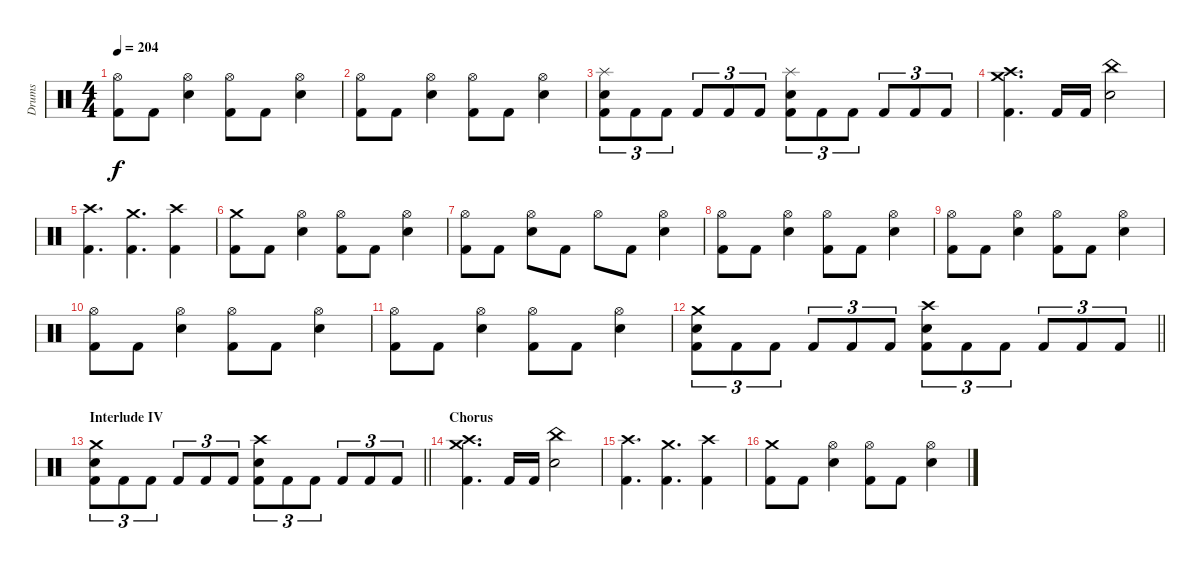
\track ("Drums" "Drums") {instrument percussion}
\staff {score}
\articulation defaults
\ts (4 4)
\tempo 204
\clef neutral
\ks c
("Hi-Hat (open)" "Kick (hit) 2").8{dy f} "Kick (hit) 2".8 ("Hi-Hat (open)" "Electric Snare (hit)").4 ("Hi-Hat (open)" "Kick (hit) 2").8 "Kick (hit) 2".8 ("Hi-Hat (open)" "Electric Snare (hit)").4 |
("Hi-Hat (open)" "Kick (hit) 2").8 "Kick (hit) 2".8 ("Hi-Hat (open)" "Electric Snare (hit)").4 ("Hi-Hat (open)" "Kick (hit) 2").8 "Kick (hit) 2".8 ("Hi-Hat (open)" "Electric Snare (hit)").4 |
("Splash (hit)" "Electric Snare (hit)" "Kick (hit) 2").8{tu (3 2)} "Kick (hit) 2".8{tu (3 2)} "Kick (hit) 2".8{tu (3 2)} "Kick (hit) 2".8{tu (3 2)} "Kick (hit) 2".8{tu (3 2)} "Kick (hit) 2".8{tu (3 2)} ("Splash (hit)" "Electric Snare (hit)" "Kick (hit) 2").8{tu (3 2)} "Kick (hit) 2".8{tu (3 2)} "Kick (hit) 2".8{tu (3 2)} "Kick (hit) 2".8{tu (3 2)} "Kick (hit) 2".8{tu (3 2)} "Kick (hit) 2".8{tu (3 2)} |
("Crash medium (hit)" "Crash high (hit)" "Kick (hit) 2").4{d} "Kick (hit) 2".16 "Kick (hit) 2".16 ("China (hit)" "Electric Snare (hit)").2 |
("Crash high (hit)" "Kick (hit) 2").4{d} ("Crash medium (hit)" "Kick (hit) 2").4{d} ("Crash high (hit)" "Kick (hit) 2").4 |
("Crash medium (hit)" "Kick (hit) 2").8 "Kick (hit) 2".8 ("Hi-Hat (open)" "Electric Snare (hit)").4 ("Hi-Hat (open)" "Kick (hit) 2").8 "Kick (hit) 2".8 ("Hi-Hat (open)" "Electric Snare (hit)").4 |
("Hi-Hat (open)" "Kick (hit) 2").8 "Kick (hit) 2".8 ("Hi-Hat (open)" "Electric Snare (hit)").8 "Kick (hit) 2".8 "Hi-Hat (open)".8 "Kick (hit) 2".8 ("Hi-Hat (open)" "Electric Snare (hit)").4 |
("Hi-Hat (open)" "Kick (hit) 2").8 "Kick (hit) 2".8 ("Hi-Hat (open)" "Electric Snare (hit)").4 ("Hi-Hat (open)" "Kick (hit) 2").8 "Kick (hit) 2".8 ("Hi-Hat (open)" "Electric Snare (hit)").4 |
("Hi-Hat (open)" "Kick (hit) 2").8 "Kick (hit) 2".8 ("Hi-Hat (open)" "Electric Snare (hit)").4 ("Hi-Hat (open)" "Kick (hit) 2").8 "Kick (hit) 2".8 ("Hi-Hat (open)" "Electric Snare (hit)").4 |
("Hi-Hat (open)" "Kick (hit) 2").8 "Kick (hit) 2".8 ("Hi-Hat (open)" "Electric Snare (hit)").4 ("Hi-Hat (open)" "Kick (hit) 2").8 "Kick (hit) 2".8 ("Hi-Hat (open)" "Electric Snare (hit)").4 |
("Hi-Hat (open)" "Kick (hit) 2").8 "Kick (hit) 2".8 ("Hi-Hat (open)" "Electric Snare (hit)").4 ("Hi-Hat (open)" "Kick (hit) 2").8 "Kick (hit) 2".8 ("Hi-Hat (open)" "Electric Snare (hit)").4 |
\barLineRight lightlight
("Crash medium (hit)" "Electric Snare (hit)" "Kick (hit) 2").8{tu (3 2)} "Kick (hit) 2".8{tu (3 2)} "Kick (hit) 2".8{tu (3 2)} "Kick (hit) 2".8{tu (3 2)} "Kick (hit) 2".8{tu (3 2)} "Kick (hit) 2".8{tu (3 2)} ("Crash high (hit)" "Electric Snare (hit)" "Kick (hit) 2").8{tu (3 2)} "Kick (hit) 2".8{tu (3 2)} "Kick (hit) 2".8{tu (3 2)} "Kick (hit) 2".8{tu (3 2)} "Kick (hit) 2".8{tu (3 2)} "Kick (hit) 2".8{tu (3 2)} |
\section ("" "Interlude IV")
\barLineRight lightlight
("Crash medium (hit)" "Electric Snare (hit)" "Kick (hit) 2").8{tu (3 2)} "Kick (hit) 2".8{tu (3 2)} "Kick (hit) 2".8{tu (3 2)} "Kick (hit) 2".8{tu (3 2)} "Kick (hit) 2".8{tu (3 2)} "Kick (hit) 2".8{tu (3 2)} ("Crash high (hit)" "Electric Snare (hit)" "Kick (hit) 2").8{tu (3 2)} "Kick (hit) 2".8{tu (3 2)} "Kick (hit) 2".8{tu (3 2)} "Kick (hit) 2".8{tu (3 2)} "Kick (hit) 2".8{tu (3 2)} "Kick (hit) 2".8{tu (3 2)} |
\section ("" "Chorus")
("Crash medium (hit)" "Crash high (hit)" "Kick (hit) 2").4{d} "Kick (hit) 2".16 "Kick (hit) 2".16 ("China (hit)" "Electric Snare (hit)").2 |
("Crash high (hit)" "Kick (hit) 2").4{d} ("Crash medium (hit)" "Kick (hit) 2").4{d} ("Crash high (hit)" "Kick (hit) 2").4 |
("Crash medium (hit)" "Kick (hit) 2").8 "Kick (hit) 2".8 ("Hi-Hat (open)" "Electric Snare (hit)").4 ("Hi-Hat (open)" "Kick (hit) 2").8 "Kick (hit) 2".8 ("Hi-Hat (open)" "Electric Snare (hit)").4
